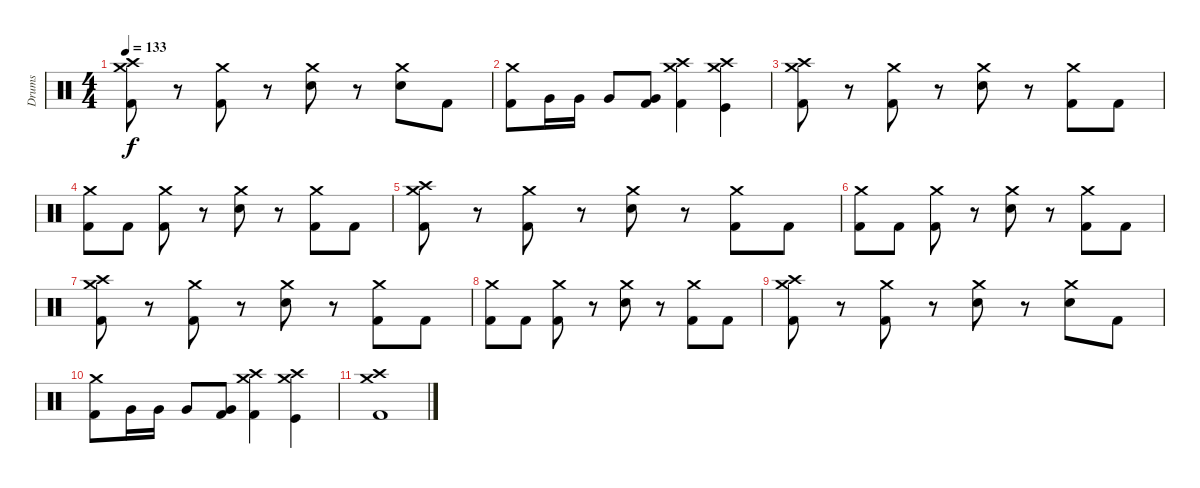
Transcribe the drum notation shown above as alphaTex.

\track ("Drums" "Drums") {instrument percussion}
\staff {score}
\articulation defaults
\ts (4 4)
\tempo 133
\clef neutral
\ks c
("Crash high (hit)" "Crash medium (hit)" "Kick (hit) 2").8{dy f} r.8 ("Crash medium (hit)" "Kick (hit) 2").8 r.8 ("Crash medium (hit)" "Electric Snare (hit)").8 r.8 ("Crash medium (hit)" "Electric Snare (hit)").8 "Kick (hit) 2".8 |
("Crash medium (hit)" "Kick (hit) 2").8 "Very Low Tom (hit)".16 "Very Low Tom (hit)".16 "Very Low Tom (hit)".8 ("Very Low Tom (hit)" "Kick (hit) 2").8 ("Crash high (hit)" "Crash medium (hit)" "Kick (hit) 2").4 ("Crash high (hit)" "Crash medium (hit)" "Kick (hit)").4 |
("Crash high (hit)" "Crash medium (hit)" "Kick (hit) 2").8 r.8 ("Crash medium (hit)" "Kick (hit) 2").8 r.8 ("Crash medium (hit)" "Electric Snare (hit)").8 r.8 ("Crash medium (hit)" "Kick (hit) 2").8 "Kick (hit) 2".8 |
("Crash medium (hit)" "Kick (hit) 2").8 "Kick (hit) 2".8 ("Crash medium (hit)" "Kick (hit) 2").8 r.8 ("Crash medium (hit)" "Electric Snare (hit)").8 r.8 ("Crash medium (hit)" "Kick (hit) 2").8 "Kick (hit) 2".8 |
("Crash high (hit)" "Crash medium (hit)" "Kick (hit) 2").8 r.8 ("Crash medium (hit)" "Kick (hit) 2").8 r.8 ("Crash medium (hit)" "Electric Snare (hit)").8 r.8 ("Crash medium (hit)" "Kick (hit) 2").8 "Kick (hit) 2".8 |
("Crash medium (hit)" "Kick (hit) 2").8 "Kick (hit) 2".8 ("Crash medium (hit)" "Kick (hit) 2").8 r.8 ("Crash medium (hit)" "Electric Snare (hit)").8 r.8 ("Crash medium (hit)" "Kick (hit) 2").8 "Kick (hit) 2".8 |
("Crash high (hit)" "Crash medium (hit)" "Kick (hit) 2").8 r.8 ("Crash medium (hit)" "Kick (hit) 2").8 r.8 ("Crash medium (hit)" "Electric Snare (hit)").8 r.8 ("Crash medium (hit)" "Kick (hit) 2").8 "Kick (hit) 2".8 |
("Crash medium (hit)" "Kick (hit) 2").8 "Kick (hit) 2".8 ("Crash medium (hit)" "Kick (hit) 2").8 r.8 ("Crash medium (hit)" "Electric Snare (hit)").8 r.8 ("Crash medium (hit)" "Kick (hit) 2").8 "Kick (hit) 2".8 |
("Crash high (hit)" "Crash medium (hit)" "Kick (hit) 2").8 r.8 ("Crash medium (hit)" "Kick (hit) 2").8 r.8 ("Crash medium (hit)" "Electric Snare (hit)").8 r.8 ("Crash medium (hit)" "Electric Snare (hit)").8 "Kick (hit) 2".8 |
("Crash medium (hit)" "Kick (hit) 2").8 "Very Low Tom (hit)".16 "Very Low Tom (hit)".16 "Very Low Tom (hit)".8 ("Very Low Tom (hit)" "Kick (hit) 2").8 ("Crash high (hit)" "Crash medium (hit)" "Kick (hit) 2").4 ("Crash high (hit)" "Crash medium (hit)" "Kick (hit)").4 |
("Crash high (hit)" "Crash medium (hit)" "Kick (hit) 2").1
